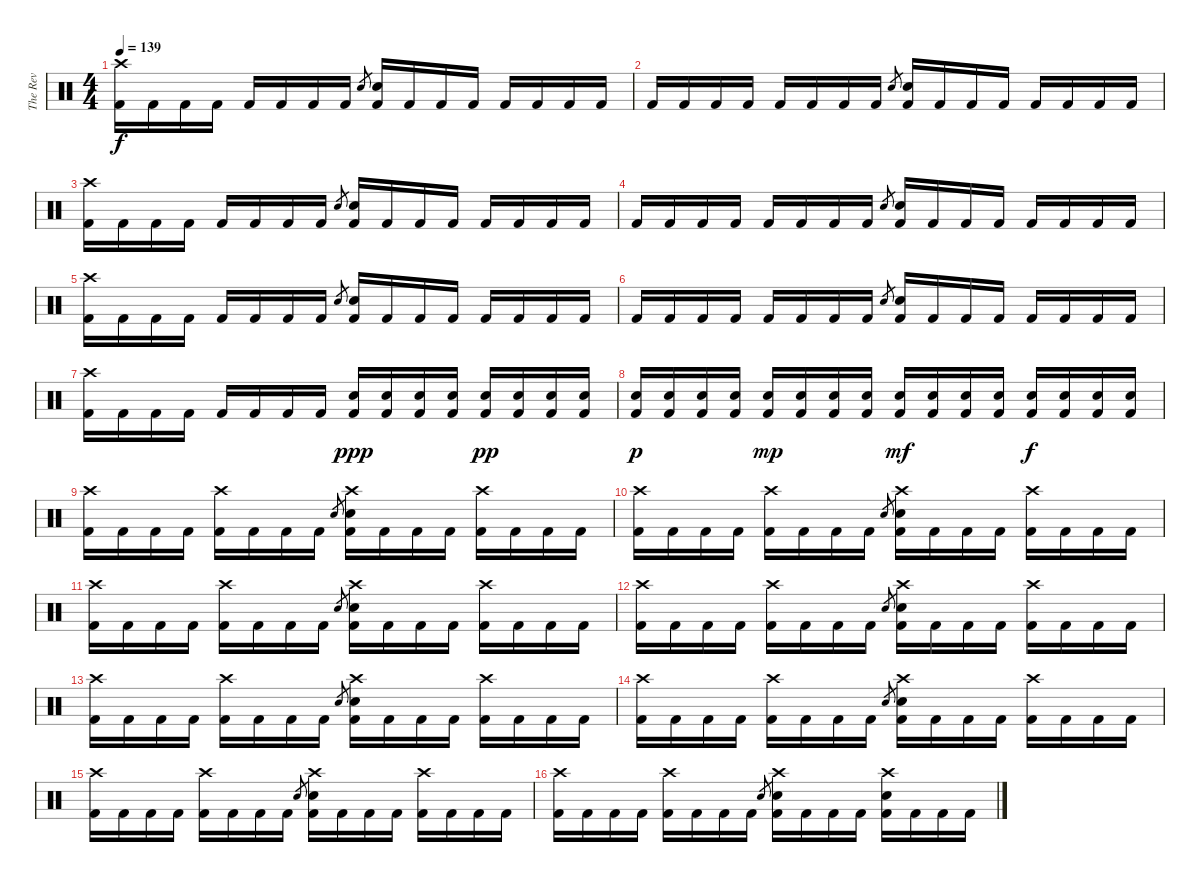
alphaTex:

\track ("The Rev" "The Rev") {instrument percussion}
\staff {score}
\articulation defaults
\ts (4 4)
\tempo 139
\clef neutral
\ks c
("Crash high (hit)" "Kick (hit) 2").16{dy f} "Kick (hit) 2".16 "Kick (hit) 2".16 "Kick (hit) 2".16 "Kick (hit) 2".16 "Kick (hit) 2".16 "Kick (hit) 2".16 "Kick (hit) 2".16 "Electric Snare (hit)".8{gr} ("Electric Snare (hit)" "Kick (hit) 2").16 "Kick (hit) 2".16 "Kick (hit) 2".16 "Kick (hit) 2".16 "Kick (hit) 2".16 "Kick (hit) 2".16 "Kick (hit) 2".16 "Kick (hit) 2".16 |
"Kick (hit) 2".16 "Kick (hit) 2".16 "Kick (hit) 2".16 "Kick (hit) 2".16 "Kick (hit) 2".16 "Kick (hit) 2".16 "Kick (hit) 2".16 "Kick (hit) 2".16 "Electric Snare (hit)".8{gr} ("Electric Snare (hit)" "Kick (hit) 2").16 "Kick (hit) 2".16 "Kick (hit) 2".16 "Kick (hit) 2".16 "Kick (hit) 2".16 "Kick (hit) 2".16 "Kick (hit) 2".16 "Kick (hit) 2".16 |
("Crash high (hit)" "Kick (hit) 2").16 "Kick (hit) 2".16 "Kick (hit) 2".16 "Kick (hit) 2".16 "Kick (hit) 2".16 "Kick (hit) 2".16 "Kick (hit) 2".16 "Kick (hit) 2".16 "Electric Snare (hit)".8{gr} ("Electric Snare (hit)" "Kick (hit) 2").16 "Kick (hit) 2".16 "Kick (hit) 2".16 "Kick (hit) 2".16 "Kick (hit) 2".16 "Kick (hit) 2".16 "Kick (hit) 2".16 "Kick (hit) 2".16 |
"Kick (hit) 2".16 "Kick (hit) 2".16 "Kick (hit) 2".16 "Kick (hit) 2".16 "Kick (hit) 2".16 "Kick (hit) 2".16 "Kick (hit) 2".16 "Kick (hit) 2".16 "Electric Snare (hit)".8{gr} ("Electric Snare (hit)" "Kick (hit) 2").16 "Kick (hit) 2".16 "Kick (hit) 2".16 "Kick (hit) 2".16 "Kick (hit) 2".16 "Kick (hit) 2".16 "Kick (hit) 2".16 "Kick (hit) 2".16 |
("Crash high (hit)" "Kick (hit) 2").16 "Kick (hit) 2".16 "Kick (hit) 2".16 "Kick (hit) 2".16 "Kick (hit) 2".16 "Kick (hit) 2".16 "Kick (hit) 2".16 "Kick (hit) 2".16 "Electric Snare (hit)".8{gr} ("Electric Snare (hit)" "Kick (hit) 2").16 "Kick (hit) 2".16 "Kick (hit) 2".16 "Kick (hit) 2".16 "Kick (hit) 2".16 "Kick (hit) 2".16 "Kick (hit) 2".16 "Kick (hit) 2".16 |
"Kick (hit) 2".16 "Kick (hit) 2".16 "Kick (hit) 2".16 "Kick (hit) 2".16 "Kick (hit) 2".16 "Kick (hit) 2".16 "Kick (hit) 2".16 "Kick (hit) 2".16 "Electric Snare (hit)".8{gr} ("Electric Snare (hit)" "Kick (hit) 2").16 "Kick (hit) 2".16 "Kick (hit) 2".16 "Kick (hit) 2".16 "Kick (hit) 2".16 "Kick (hit) 2".16 "Kick (hit) 2".16 "Kick (hit) 2".16 |
("Crash high (hit)" "Kick (hit) 2").16 "Kick (hit) 2".16 "Kick (hit) 2".16 "Kick (hit) 2".16 "Kick (hit) 2".16 "Kick (hit) 2".16 "Kick (hit) 2".16 "Kick (hit) 2".16 ("Electric Snare (hit)" "Kick (hit) 2").16{dy ppp} ("Electric Snare (hit)" "Kick (hit) 2").16 ("Electric Snare (hit)" "Kick (hit) 2").16 ("Electric Snare (hit)" "Kick (hit) 2").16 ("Electric Snare (hit)" "Kick (hit) 2").16{dy pp} ("Electric Snare (hit)" "Kick (hit) 2").16 ("Electric Snare (hit)" "Kick (hit) 2").16 ("Electric Snare (hit)" "Kick (hit) 2").16 |
("Electric Snare (hit)" "Kick (hit) 2").16{dy p} ("Electric Snare (hit)" "Kick (hit) 2").16 ("Electric Snare (hit)" "Kick (hit) 2").16 ("Electric Snare (hit)" "Kick (hit) 2").16 ("Electric Snare (hit)" "Kick (hit) 2").16{dy mp} ("Electric Snare (hit)" "Kick (hit) 2").16 ("Electric Snare (hit)" "Kick (hit) 2").16 ("Electric Snare (hit)" "Kick (hit) 2").16 ("Electric Snare (hit)" "Kick (hit) 2").16{dy mf} ("Electric Snare (hit)" "Kick (hit) 2").16 ("Electric Snare (hit)" "Kick (hit) 2").16 ("Electric Snare (hit)" "Kick (hit) 2").16 ("Electric Snare (hit)" "Kick (hit) 2").16{dy f} ("Electric Snare (hit)" "Kick (hit) 2").16 ("Electric Snare (hit)" "Kick (hit) 2").16 ("Electric Snare (hit)" "Kick (hit) 2").16 |
("Crash high (hit)" "Kick (hit) 2").16 "Kick (hit) 2".16 "Kick (hit) 2".16 "Kick (hit) 2".16 ("Crash high (hit)" "Kick (hit) 2").16 "Kick (hit) 2".16 "Kick (hit) 2".16 "Kick (hit) 2".16 "Electric Snare (hit)".8{gr} ("Crash high (hit)" "Electric Snare (hit)" "Kick (hit) 2").16 "Kick (hit) 2".16 "Kick (hit) 2".16 "Kick (hit) 2".16 ("Crash high (hit)" "Kick (hit) 2").16 "Kick (hit) 2".16 "Kick (hit) 2".16 "Kick (hit) 2".16 |
("Crash high (hit)" "Kick (hit) 2").16 "Kick (hit) 2".16 "Kick (hit) 2".16 "Kick (hit) 2".16 ("Crash high (hit)" "Kick (hit) 2").16 "Kick (hit) 2".16 "Kick (hit) 2".16 "Kick (hit) 2".16 "Electric Snare (hit)".8{gr} ("Crash high (hit)" "Electric Snare (hit)" "Kick (hit) 2").16 "Kick (hit) 2".16 "Kick (hit) 2".16 "Kick (hit) 2".16 ("Crash high (hit)" "Kick (hit) 2").16 "Kick (hit) 2".16 "Kick (hit) 2".16 "Kick (hit) 2".16 |
("Crash high (hit)" "Kick (hit) 2").16 "Kick (hit) 2".16 "Kick (hit) 2".16 "Kick (hit) 2".16 ("Crash high (hit)" "Kick (hit) 2").16 "Kick (hit) 2".16 "Kick (hit) 2".16 "Kick (hit) 2".16 "Electric Snare (hit)".8{gr} ("Crash high (hit)" "Electric Snare (hit)" "Kick (hit) 2").16 "Kick (hit) 2".16 "Kick (hit) 2".16 "Kick (hit) 2".16 ("Crash high (hit)" "Kick (hit) 2").16 "Kick (hit) 2".16 "Kick (hit) 2".16 "Kick (hit) 2".16 |
("Crash high (hit)" "Kick (hit) 2").16 "Kick (hit) 2".16 "Kick (hit) 2".16 "Kick (hit) 2".16 ("Crash high (hit)" "Kick (hit) 2").16 "Kick (hit) 2".16 "Kick (hit) 2".16 "Kick (hit) 2".16 "Electric Snare (hit)".8{gr} ("Crash high (hit)" "Electric Snare (hit)" "Kick (hit) 2").16 "Kick (hit) 2".16 "Kick (hit) 2".16 "Kick (hit) 2".16 ("Crash high (hit)" "Kick (hit) 2").16 "Kick (hit) 2".16 "Kick (hit) 2".16 "Kick (hit) 2".16 |
("Crash high (hit)" "Kick (hit) 2").16 "Kick (hit) 2".16 "Kick (hit) 2".16 "Kick (hit) 2".16 ("Crash high (hit)" "Kick (hit) 2").16 "Kick (hit) 2".16 "Kick (hit) 2".16 "Kick (hit) 2".16 "Electric Snare (hit)".8{gr} ("Crash high (hit)" "Electric Snare (hit)" "Kick (hit) 2").16 "Kick (hit) 2".16 "Kick (hit) 2".16 "Kick (hit) 2".16 ("Crash high (hit)" "Kick (hit) 2").16 "Kick (hit) 2".16 "Kick (hit) 2".16 "Kick (hit) 2".16 |
("Crash high (hit)" "Kick (hit) 2").16 "Kick (hit) 2".16 "Kick (hit) 2".16 "Kick (hit) 2".16 ("Crash high (hit)" "Kick (hit) 2").16 "Kick (hit) 2".16 "Kick (hit) 2".16 "Kick (hit) 2".16 "Electric Snare (hit)".8{gr} ("Crash high (hit)" "Electric Snare (hit)" "Kick (hit) 2").16 "Kick (hit) 2".16 "Kick (hit) 2".16 "Kick (hit) 2".16 ("Crash high (hit)" "Kick (hit) 2").16 "Kick (hit) 2".16 "Kick (hit) 2".16 "Kick (hit) 2".16 |
("Crash high (hit)" "Kick (hit) 2").16 "Kick (hit) 2".16 "Kick (hit) 2".16 "Kick (hit) 2".16 ("Crash high (hit)" "Kick (hit) 2").16 "Kick (hit) 2".16 "Kick (hit) 2".16 "Kick (hit) 2".16 "Electric Snare (hit)".8{gr} ("Crash high (hit)" "Electric Snare (hit)" "Kick (hit) 2").16 "Kick (hit) 2".16 "Kick (hit) 2".16 "Kick (hit) 2".16 ("Crash high (hit)" "Kick (hit) 2").16 "Kick (hit) 2".16 "Kick (hit) 2".16 "Kick (hit) 2".16 |
("Crash high (hit)" "Kick (hit) 2").16 "Kick (hit) 2".16 "Kick (hit) 2".16 "Kick (hit) 2".16 ("Crash high (hit)" "Kick (hit) 2").16 "Kick (hit) 2".16 "Kick (hit) 2".16 "Kick (hit) 2".16 "Electric Snare (hit)".8{gr} ("Crash high (hit)" "Electric Snare (hit)" "Kick (hit) 2").16 "Kick (hit) 2".16 "Kick (hit) 2".16 "Kick (hit) 2".16 ("Crash high (hit)" "Electric Snare (hit)" "Kick (hit) 2").16 "Kick (hit) 2".16 "Kick (hit) 2".16 "Kick (hit) 2".16
